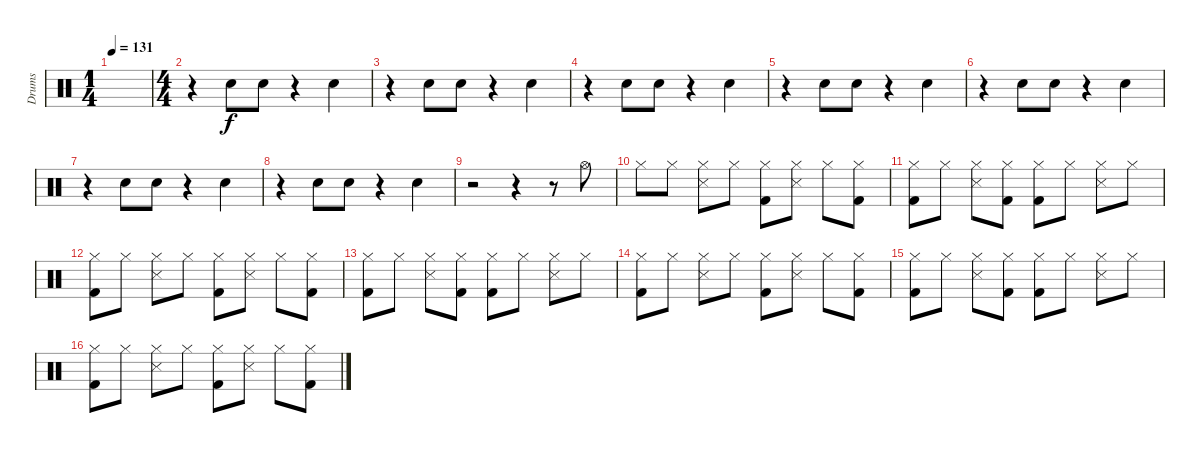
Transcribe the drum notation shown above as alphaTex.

\track ("Drums" "Drums") {instrument percussion}
\staff {score}
\articulation defaults
\ts (1 4)
\tempo 131
\clef neutral
\ks c
|
\ts (4 4)
r.4 "Hand Clap (hit)".8 "Hand Clap (hit)".8 r.4 "Hand Clap (hit)".4 |
r.4 "Hand Clap (hit)".8 "Hand Clap (hit)".8 r.4 "Hand Clap (hit)".4 |
r.4 "Hand Clap (hit)".8 "Hand Clap (hit)".8 r.4 "Hand Clap (hit)".4 |
r.4 "Hand Clap (hit)".8 "Hand Clap (hit)".8 r.4 "Hand Clap (hit)".4 |
r.4 "Hand Clap (hit)".8 "Hand Clap (hit)".8 r.4 "Hand Clap (hit)".4 |
r.4 "Hand Clap (hit)".8 "Hand Clap (hit)".8 r.4 "Hand Clap (hit)".4 |
r.4 "Hand Clap (hit)".8 "Hand Clap (hit)".8 r.4 "Hand Clap (hit)".4 |
r.2 r.4 r.8 "Hi-Hat (open)".8 |
"Hi-Hat (closed)".8 "Hi-Hat (closed)".8 ("Snare (side stick) 3" "Hi-Hat (closed)").8 "Hi-Hat (closed)".8 ("Hi-Hat (closed)" "Kick (hit) 2").8 ("Snare (side stick) 3" "Hi-Hat (closed)").8 "Hi-Hat (closed)".8 ("Hi-Hat (closed)" "Kick (hit) 2").8 |
("Hi-Hat (closed)" "Kick (hit) 2").8 "Hi-Hat (closed)".8 ("Snare (side stick) 3" "Hi-Hat (closed)").8 ("Hi-Hat (closed)" "Kick (hit) 2").8 ("Hi-Hat (closed)" "Kick (hit) 2").8 "Hi-Hat (closed)".8 ("Snare (side stick) 3" "Hi-Hat (closed)").8 "Hi-Hat (closed)".8 |
("Hi-Hat (closed)" "Kick (hit) 2").8 "Hi-Hat (closed)".8 ("Snare (side stick) 3" "Hi-Hat (closed)").8 "Hi-Hat (closed)".8 ("Hi-Hat (closed)" "Kick (hit) 2").8 ("Snare (side stick) 3" "Hi-Hat (closed)").8 "Hi-Hat (closed)".8 ("Hi-Hat (closed)" "Kick (hit) 2").8 |
("Hi-Hat (closed)" "Kick (hit) 2").8 "Hi-Hat (closed)".8 ("Snare (side stick) 3" "Hi-Hat (closed)").8 ("Hi-Hat (closed)" "Kick (hit) 2").8 ("Hi-Hat (closed)" "Kick (hit) 2").8 "Hi-Hat (closed)".8 ("Snare (side stick) 3" "Hi-Hat (closed)").8 "Hi-Hat (closed)".8 |
("Hi-Hat (closed)" "Kick (hit) 2").8 "Hi-Hat (closed)".8 ("Snare (side stick) 3" "Hi-Hat (closed)").8 "Hi-Hat (closed)".8 ("Hi-Hat (closed)" "Kick (hit) 2").8 ("Snare (side stick) 3" "Hi-Hat (closed)").8 "Hi-Hat (closed)".8 ("Hi-Hat (closed)" "Kick (hit) 2").8 |
("Hi-Hat (closed)" "Kick (hit) 2").8 "Hi-Hat (closed)".8 ("Snare (side stick) 3" "Hi-Hat (closed)").8 ("Hi-Hat (closed)" "Kick (hit) 2").8 ("Hi-Hat (closed)" "Kick (hit) 2").8 "Hi-Hat (closed)".8 ("Snare (side stick) 3" "Hi-Hat (closed)").8 "Hi-Hat (closed)".8 |
("Hi-Hat (closed)" "Kick (hit) 2").8 "Hi-Hat (closed)".8 ("Snare (side stick) 3" "Hi-Hat (closed)").8 "Hi-Hat (closed)".8 ("Hi-Hat (closed)" "Kick (hit) 2").8 ("Snare (side stick) 3" "Hi-Hat (closed)").8 "Hi-Hat (closed)".8 ("Hi-Hat (closed)" "Kick (hit) 2").8
